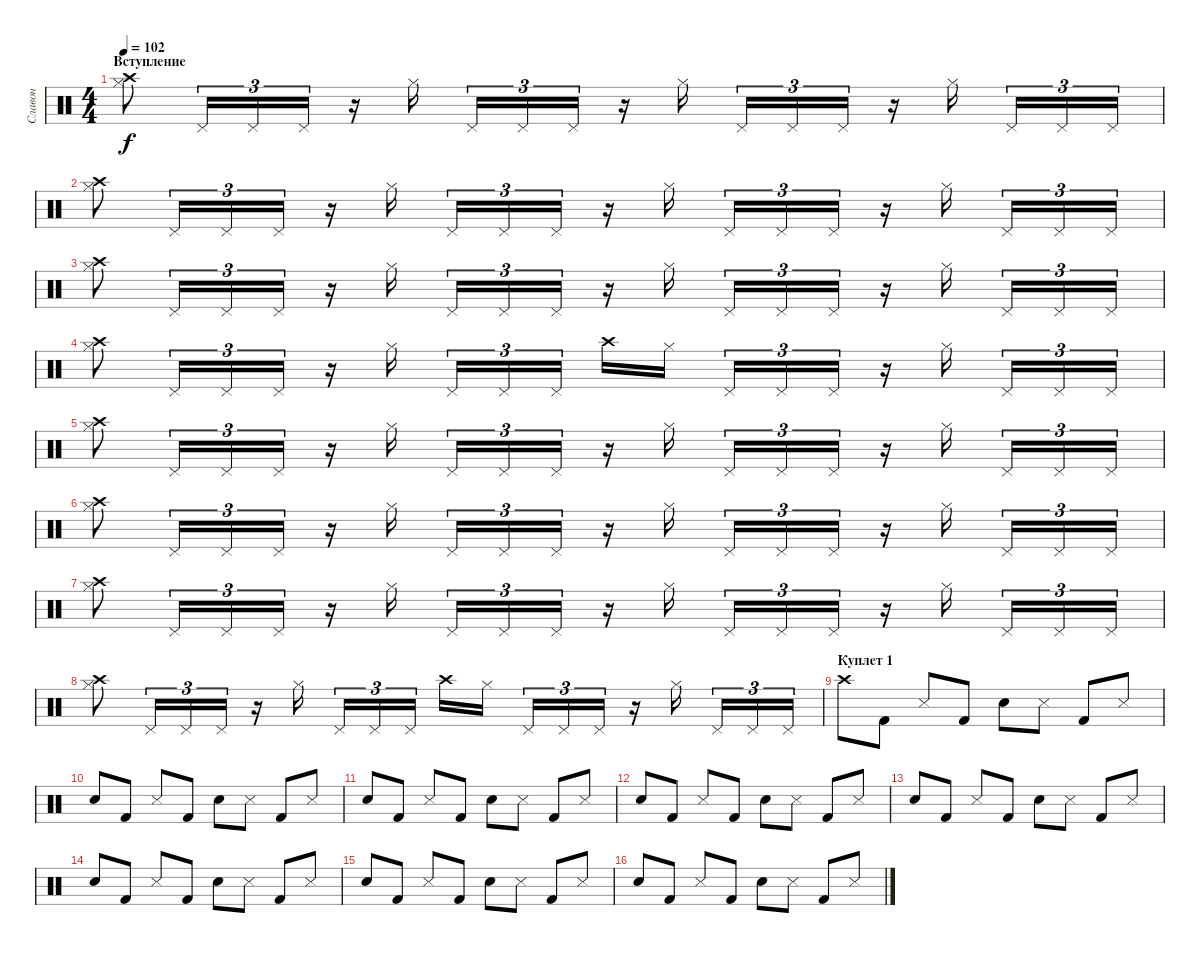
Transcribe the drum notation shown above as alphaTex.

\track ("Славон" "Славон") {instrument percussion}
\staff {score}
\articulation defaults
\ts (4 4)
\section ("" "Вступление")
\tempo 102
\clef neutral
\ks c
("Hi-Hat (closed)" "Crash high (hit)").8{dy f} "Pedal Hi-Hat (hit)".16{tu (3 2)} "Pedal Hi-Hat (hit)".16{tu (3 2)} "Pedal Hi-Hat (hit)".16{tu (3 2)} r.16 "Hi-Hat (closed)".16 "Pedal Hi-Hat (hit)".16{tu (3 2)} "Pedal Hi-Hat (hit)".16{tu (3 2)} "Pedal Hi-Hat (hit)".16{tu (3 2)} r.16 "Hi-Hat (closed)".16 "Pedal Hi-Hat (hit)".16{tu (3 2)} "Pedal Hi-Hat (hit)".16{tu (3 2)} "Pedal Hi-Hat (hit)".16{tu (3 2)} r.16 "Hi-Hat (closed)".16 "Pedal Hi-Hat (hit)".16{tu (3 2)} "Pedal Hi-Hat (hit)".16{tu (3 2)} "Pedal Hi-Hat (hit)".16{tu (3 2)} |
("Hi-Hat (closed)" "Crash high (hit)").8 "Pedal Hi-Hat (hit)".16{tu (3 2)} "Pedal Hi-Hat (hit)".16{tu (3 2)} "Pedal Hi-Hat (hit)".16{tu (3 2)} r.16 "Hi-Hat (closed)".16 "Pedal Hi-Hat (hit)".16{tu (3 2)} "Pedal Hi-Hat (hit)".16{tu (3 2)} "Pedal Hi-Hat (hit)".16{tu (3 2)} r.16 "Hi-Hat (closed)".16 "Pedal Hi-Hat (hit)".16{tu (3 2)} "Pedal Hi-Hat (hit)".16{tu (3 2)} "Pedal Hi-Hat (hit)".16{tu (3 2)} r.16 "Hi-Hat (closed)".16 "Pedal Hi-Hat (hit)".16{tu (3 2)} "Pedal Hi-Hat (hit)".16{tu (3 2)} "Pedal Hi-Hat (hit)".16{tu (3 2)} |
("Hi-Hat (closed)" "Crash high (hit)").8 "Pedal Hi-Hat (hit)".16{tu (3 2)} "Pedal Hi-Hat (hit)".16{tu (3 2)} "Pedal Hi-Hat (hit)".16{tu (3 2)} r.16 "Hi-Hat (closed)".16 "Pedal Hi-Hat (hit)".16{tu (3 2)} "Pedal Hi-Hat (hit)".16{tu (3 2)} "Pedal Hi-Hat (hit)".16{tu (3 2)} r.16 "Hi-Hat (closed)".16 "Pedal Hi-Hat (hit)".16{tu (3 2)} "Pedal Hi-Hat (hit)".16{tu (3 2)} "Pedal Hi-Hat (hit)".16{tu (3 2)} r.16 "Hi-Hat (closed)".16 "Pedal Hi-Hat (hit)".16{tu (3 2)} "Pedal Hi-Hat (hit)".16{tu (3 2)} "Pedal Hi-Hat (hit)".16{tu (3 2)} |
("Hi-Hat (closed)" "Crash high (hit)").8 "Pedal Hi-Hat (hit)".16{tu (3 2)} "Pedal Hi-Hat (hit)".16{tu (3 2)} "Pedal Hi-Hat (hit)".16{tu (3 2)} r.16 "Hi-Hat (closed)".16 "Pedal Hi-Hat (hit)".16{tu (3 2)} "Pedal Hi-Hat (hit)".16{tu (3 2)} "Pedal Hi-Hat (hit)".16{tu (3 2)} "Crash high (hit)".16 "Hi-Hat (closed)".16 "Pedal Hi-Hat (hit)".16{tu (3 2)} "Pedal Hi-Hat (hit)".16{tu (3 2)} "Pedal Hi-Hat (hit)".16{tu (3 2)} r.16 "Hi-Hat (closed)".16 "Pedal Hi-Hat (hit)".16{tu (3 2)} "Pedal Hi-Hat (hit)".16{tu (3 2)} "Pedal Hi-Hat (hit)".16{tu (3 2)} |
("Hi-Hat (closed)" "Crash high (hit)").8 "Pedal Hi-Hat (hit)".16{tu (3 2)} "Pedal Hi-Hat (hit)".16{tu (3 2)} "Pedal Hi-Hat (hit)".16{tu (3 2)} r.16 "Hi-Hat (closed)".16 "Pedal Hi-Hat (hit)".16{tu (3 2)} "Pedal Hi-Hat (hit)".16{tu (3 2)} "Pedal Hi-Hat (hit)".16{tu (3 2)} r.16 "Hi-Hat (closed)".16 "Pedal Hi-Hat (hit)".16{tu (3 2)} "Pedal Hi-Hat (hit)".16{tu (3 2)} "Pedal Hi-Hat (hit)".16{tu (3 2)} r.16 "Hi-Hat (closed)".16 "Pedal Hi-Hat (hit)".16{tu (3 2)} "Pedal Hi-Hat (hit)".16{tu (3 2)} "Pedal Hi-Hat (hit)".16{tu (3 2)} |
("Hi-Hat (closed)" "Crash high (hit)").8 "Pedal Hi-Hat (hit)".16{tu (3 2)} "Pedal Hi-Hat (hit)".16{tu (3 2)} "Pedal Hi-Hat (hit)".16{tu (3 2)} r.16 "Hi-Hat (closed)".16 "Pedal Hi-Hat (hit)".16{tu (3 2)} "Pedal Hi-Hat (hit)".16{tu (3 2)} "Pedal Hi-Hat (hit)".16{tu (3 2)} r.16 "Hi-Hat (closed)".16 "Pedal Hi-Hat (hit)".16{tu (3 2)} "Pedal Hi-Hat (hit)".16{tu (3 2)} "Pedal Hi-Hat (hit)".16{tu (3 2)} r.16 "Hi-Hat (closed)".16 "Pedal Hi-Hat (hit)".16{tu (3 2)} "Pedal Hi-Hat (hit)".16{tu (3 2)} "Pedal Hi-Hat (hit)".16{tu (3 2)} |
("Hi-Hat (closed)" "Crash high (hit)").8 "Pedal Hi-Hat (hit)".16{tu (3 2)} "Pedal Hi-Hat (hit)".16{tu (3 2)} "Pedal Hi-Hat (hit)".16{tu (3 2)} r.16 "Hi-Hat (closed)".16 "Pedal Hi-Hat (hit)".16{tu (3 2)} "Pedal Hi-Hat (hit)".16{tu (3 2)} "Pedal Hi-Hat (hit)".16{tu (3 2)} r.16 "Hi-Hat (closed)".16 "Pedal Hi-Hat (hit)".16{tu (3 2)} "Pedal Hi-Hat (hit)".16{tu (3 2)} "Pedal Hi-Hat (hit)".16{tu (3 2)} r.16 "Hi-Hat (closed)".16 "Pedal Hi-Hat (hit)".16{tu (3 2)} "Pedal Hi-Hat (hit)".16{tu (3 2)} "Pedal Hi-Hat (hit)".16{tu (3 2)} |
("Hi-Hat (closed)" "Crash high (hit)").8 "Pedal Hi-Hat (hit)".16{tu (3 2)} "Pedal Hi-Hat (hit)".16{tu (3 2)} "Pedal Hi-Hat (hit)".16{tu (3 2)} r.16 "Hi-Hat (closed)".16 "Pedal Hi-Hat (hit)".16{tu (3 2)} "Pedal Hi-Hat (hit)".16{tu (3 2)} "Pedal Hi-Hat (hit)".16{tu (3 2)} "Crash high (hit)".16 "Hi-Hat (closed)".16 "Pedal Hi-Hat (hit)".16{tu (3 2)} "Pedal Hi-Hat (hit)".16{tu (3 2)} "Pedal Hi-Hat (hit)".16{tu (3 2)} r.16 "Hi-Hat (closed)".16 "Pedal Hi-Hat (hit)".16{tu (3 2)} "Pedal Hi-Hat (hit)".16{tu (3 2)} "Pedal Hi-Hat (hit)".16{tu (3 2)} |
\section ("" "Куплет 1")
"Crash high (hit)".8 "Kick (hit) 2".8 "Snare (side stick) 3".8 "Kick (hit) 2".8 "Snare (hit) 2".8 "Snare (side stick) 3".8 "Kick (hit) 2".8 "Snare (side stick) 3".8 |
"Snare (hit) 2".8 "Kick (hit) 2".8 "Snare (side stick) 3".8 "Kick (hit) 2".8 "Snare (hit) 2".8 "Snare (side stick) 3".8 "Kick (hit) 2".8 "Snare (side stick) 3".8 |
"Snare (hit) 2".8 "Kick (hit) 2".8 "Snare (side stick) 3".8 "Kick (hit) 2".8 "Snare (hit) 2".8 "Snare (side stick) 3".8 "Kick (hit) 2".8 "Snare (side stick) 3".8 |
"Snare (hit) 2".8 "Kick (hit) 2".8 "Snare (side stick) 3".8 "Kick (hit) 2".8 "Snare (hit) 2".8 "Snare (side stick) 3".8 "Kick (hit) 2".8 "Snare (side stick) 3".8 |
"Snare (hit) 2".8 "Kick (hit) 2".8 "Snare (side stick) 3".8 "Kick (hit) 2".8 "Snare (hit) 2".8 "Snare (side stick) 3".8 "Kick (hit) 2".8 "Snare (side stick) 3".8 |
"Snare (hit) 2".8 "Kick (hit) 2".8 "Snare (side stick) 3".8 "Kick (hit) 2".8 "Snare (hit) 2".8 "Snare (side stick) 3".8 "Kick (hit) 2".8 "Snare (side stick) 3".8 |
"Snare (hit) 2".8 "Kick (hit) 2".8 "Snare (side stick) 3".8 "Kick (hit) 2".8 "Snare (hit) 2".8 "Snare (side stick) 3".8 "Kick (hit) 2".8 "Snare (side stick) 3".8 |
"Snare (hit) 2".8 "Kick (hit) 2".8 "Snare (side stick) 3".8 "Kick (hit) 2".8 "Snare (hit) 2".8 "Snare (side stick) 3".8 "Kick (hit) 2".8 "Snare (side stick) 3".8
